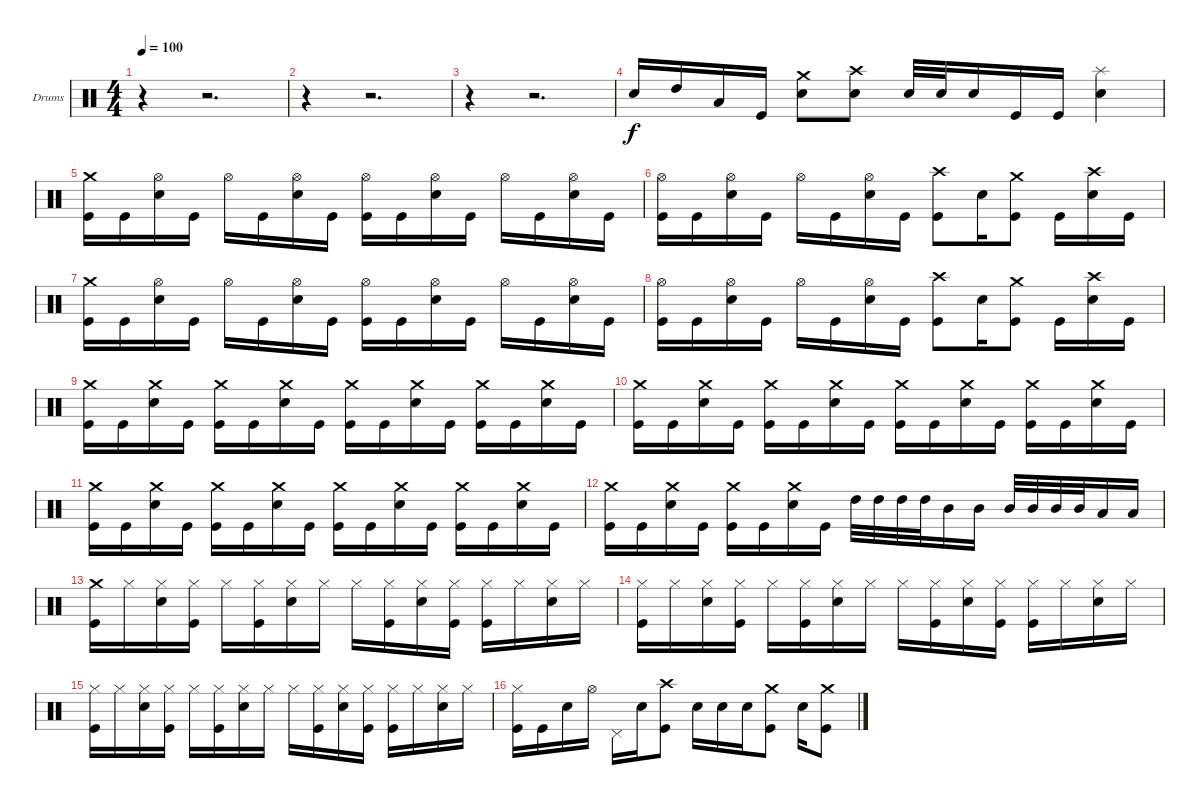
\bracketExtendMode groupsimilarinstruments
\firstSystemTrackNameOrientation horizontal
\otherSystemsTrackNameOrientation horizontal
\track ("Drumkit" "Drums") {instrument percussion}
\staff {score}
\articulation defaults
\ts (4 4)
\beaming (8 2 2 2 2)
\tempo 100
\clef neutral
\ks c
r.4{dy f} r.2{d} |
r.4 r.2{d} |
r.4 r.2{d} |
"Snare (hit) 2".16 "High Tom (hit)".16 "Low Tom (hit)".16 "Kick (hit)".16 ("Crash medium (hit)" "Snare (hit) 2").8 ("Crash high (hit)" "Snare (hit) 2").8 "Snare (hit) 2".32 "Snare (hit) 2".32 "Snare (hit) 2".16 "Kick (hit)".16 "Kick (hit)".16 ("Splash (hit)" "Snare (hit) 2").4 |
("Crash medium (hit)" "Kick (hit)").16 "Kick (hit)".16 ("Hi-Hat (open)" "Snare (hit) 2").16 "Kick (hit)".16 "Hi-Hat (open)".16 "Kick (hit)".16 ("Hi-Hat (open)" "Snare (hit) 2").16 "Kick (hit)".16 ("Hi-Hat (open)" "Kick (hit)").16 "Kick (hit)".16 ("Hi-Hat (open)" "Snare (hit) 2").16 "Kick (hit)".16 "Hi-Hat (open)".16 "Kick (hit)".16 ("Hi-Hat (open)" "Snare (hit) 2").16 "Kick (hit)".16 |
("Hi-Hat (open)" "Kick (hit)").16 "Kick (hit)".16 ("Hi-Hat (open)" "Snare (hit) 2").16 "Kick (hit)".16 "Hi-Hat (open)".16 "Kick (hit)".16 ("Hi-Hat (open)" "Snare (hit) 2").16 "Kick (hit)".16 ("Crash high (hit)" "Kick (hit)").8 "Snare (hit) 2".16 ("Crash medium (hit)" "Kick (hit)").8 "Kick (hit)".16 ("Crash high (hit)" "Snare (hit) 2").16 "Kick (hit)".16 |
("Crash medium (hit)" "Kick (hit)").16 "Kick (hit)".16 ("Hi-Hat (open)" "Snare (hit) 2").16 "Kick (hit)".16 "Hi-Hat (open)".16 "Kick (hit)".16 ("Hi-Hat (open)" "Snare (hit) 2").16 "Kick (hit)".16 ("Hi-Hat (open)" "Kick (hit)").16 "Kick (hit)".16 ("Hi-Hat (open)" "Snare (hit) 2").16 "Kick (hit)".16 "Hi-Hat (open)".16 "Kick (hit)".16 ("Hi-Hat (open)" "Snare (hit) 2").16 "Kick (hit)".16 |
("Hi-Hat (open)" "Kick (hit)").16 "Kick (hit)".16 ("Hi-Hat (open)" "Snare (hit) 2").16 "Kick (hit)".16 "Hi-Hat (open)".16 "Kick (hit)".16 ("Hi-Hat (open)" "Snare (hit) 2").16 "Kick (hit)".16 ("Crash high (hit)" "Kick (hit)").8 "Snare (hit) 2".16 ("Crash medium (hit)" "Kick (hit)").8 "Kick (hit)".16 ("Crash high (hit)" "Snare (hit) 2").16 "Kick (hit)".16 |
("Crash medium (hit)" "Kick (hit)").16 "Kick (hit)".16 ("Crash medium (hit)" "Snare (hit) 2").16 "Kick (hit)".16 ("Crash medium (hit)" "Kick (hit)").16 "Kick (hit)".16 ("Crash medium (hit)" "Snare (hit) 2").16 "Kick (hit)".16 ("Crash medium (hit)" "Kick (hit)").16 "Kick (hit)".16 ("Crash medium (hit)" "Snare (hit) 2").16 "Kick (hit)".16 ("Crash medium (hit)" "Kick (hit)").16 "Kick (hit)".16 ("Crash medium (hit)" "Snare (hit) 2").16 "Kick (hit)".16 |
("Crash medium (hit)" "Kick (hit)").16 "Kick (hit)".16 ("Crash medium (hit)" "Snare (hit) 2").16 "Kick (hit)".16 ("Crash medium (hit)" "Kick (hit)").16 "Kick (hit)".16 ("Crash medium (hit)" "Snare (hit) 2").16 "Kick (hit)".16 ("Crash medium (hit)" "Kick (hit)").16 "Kick (hit)".16 ("Crash medium (hit)" "Snare (hit) 2").16 "Kick (hit)".16 ("Crash medium (hit)" "Kick (hit)").16 "Kick (hit)".16 ("Crash medium (hit)" "Snare (hit) 2").16 "Kick (hit)".16 |
("Crash medium (hit)" "Kick (hit)").16 "Kick (hit)".16 ("Crash medium (hit)" "Snare (hit) 2").16 "Kick (hit)".16 ("Crash medium (hit)" "Kick (hit)").16 "Kick (hit)".16 ("Crash medium (hit)" "Snare (hit) 2").16 "Kick (hit)".16 ("Crash medium (hit)" "Kick (hit)").16 "Kick (hit)".16 ("Crash medium (hit)" "Snare (hit) 2").16 "Kick (hit)".16 ("Crash medium (hit)" "Kick (hit)").16 "Kick (hit)".16 ("Crash medium (hit)" "Snare (hit) 2").16 "Kick (hit)".16 |
("Crash medium (hit)" "Kick (hit)").16 "Kick (hit)".16 ("Crash medium (hit)" "Snare (hit) 2").16 "Kick (hit)".16 ("Crash medium (hit)" "Kick (hit)").16 "Kick (hit)".16 ("Crash medium (hit)" "Snare (hit) 2").16 "Kick (hit)".16 "High Tom (hit)".32 "High Tom (hit)".32 "High Tom (hit)".32 "High Tom (hit)".32 "Mid Tom (hit)".16 "Mid Tom (hit)".16 "Mid Tom (hit)".32 "Mid Tom (hit)".32 "Mid Tom (hit)".32 "Mid Tom (hit)".32 "Low Tom (hit)".16 "Low Tom (hit)".16 |
("Crash medium (hit)" "Kick (hit)").16 "Hi-Hat (closed)".16 ("Hi-Hat (closed)" "Snare (hit) 2").16 ("Hi-Hat (closed)" "Kick (hit)").16 "Hi-Hat (closed)".16 ("Hi-Hat (closed)" "Kick (hit)").16 ("Hi-Hat (closed)" "Snare (hit) 2").16 "Hi-Hat (closed)".16 "Hi-Hat (closed)".16 ("Hi-Hat (closed)" "Kick (hit)").16 ("Hi-Hat (closed)" "Snare (hit) 2").16 ("Hi-Hat (closed)" "Kick (hit)").16 ("Hi-Hat (closed)" "Kick (hit)").16 "Hi-Hat (closed)".16 ("Hi-Hat (closed)" "Snare (hit) 2").16 "Hi-Hat (closed)".16 |
("Hi-Hat (closed)" "Kick (hit)").16 "Hi-Hat (closed)".16 ("Hi-Hat (closed)" "Snare (hit) 2").16 ("Hi-Hat (closed)" "Kick (hit)").16 "Hi-Hat (closed)".16 ("Hi-Hat (closed)" "Kick (hit)").16 ("Hi-Hat (closed)" "Snare (hit) 2").16 "Hi-Hat (closed)".16 "Hi-Hat (closed)".16 ("Hi-Hat (closed)" "Kick (hit)").16 ("Hi-Hat (closed)" "Snare (hit) 2").16 ("Hi-Hat (closed)" "Kick (hit)").16 ("Hi-Hat (closed)" "Kick (hit)").16 "Hi-Hat (closed)".16 ("Hi-Hat (closed)" "Snare (hit) 2").16 "Hi-Hat (closed)".16 |
("Hi-Hat (closed)" "Kick (hit)").16 "Hi-Hat (closed)".16 ("Hi-Hat (closed)" "Snare (hit) 2").16 ("Hi-Hat (closed)" "Kick (hit)").16 "Hi-Hat (closed)".16 ("Hi-Hat (closed)" "Kick (hit)").16 ("Hi-Hat (closed)" "Snare (hit) 2").16 "Hi-Hat (closed)".16 "Hi-Hat (closed)".16 ("Hi-Hat (closed)" "Kick (hit)").16 ("Hi-Hat (closed)" "Snare (hit) 2").16 ("Hi-Hat (closed)" "Kick (hit)").16 ("Hi-Hat (closed)" "Kick (hit)").16 "Hi-Hat (closed)".16 ("Hi-Hat (closed)" "Snare (hit) 2").16 "Hi-Hat (closed)".16 |
("Hi-Hat (closed)" "Kick (hit)").16 "Kick (hit)".16 "Snare (hit) 2".16 "Hi-Hat (open)".16 "Pedal Hi-Hat (hit)".16 "Snare (hit) 2".16 ("Crash high (hit)" "Kick (hit)").8 "Snare (hit) 2".16 "Snare (hit) 2".16 "Snare (hit) 2".16 ("Crash medium (hit)" "Kick (hit)").8 "Snare (hit) 2".16 ("Crash medium (hit)" "Kick (hit)").8
